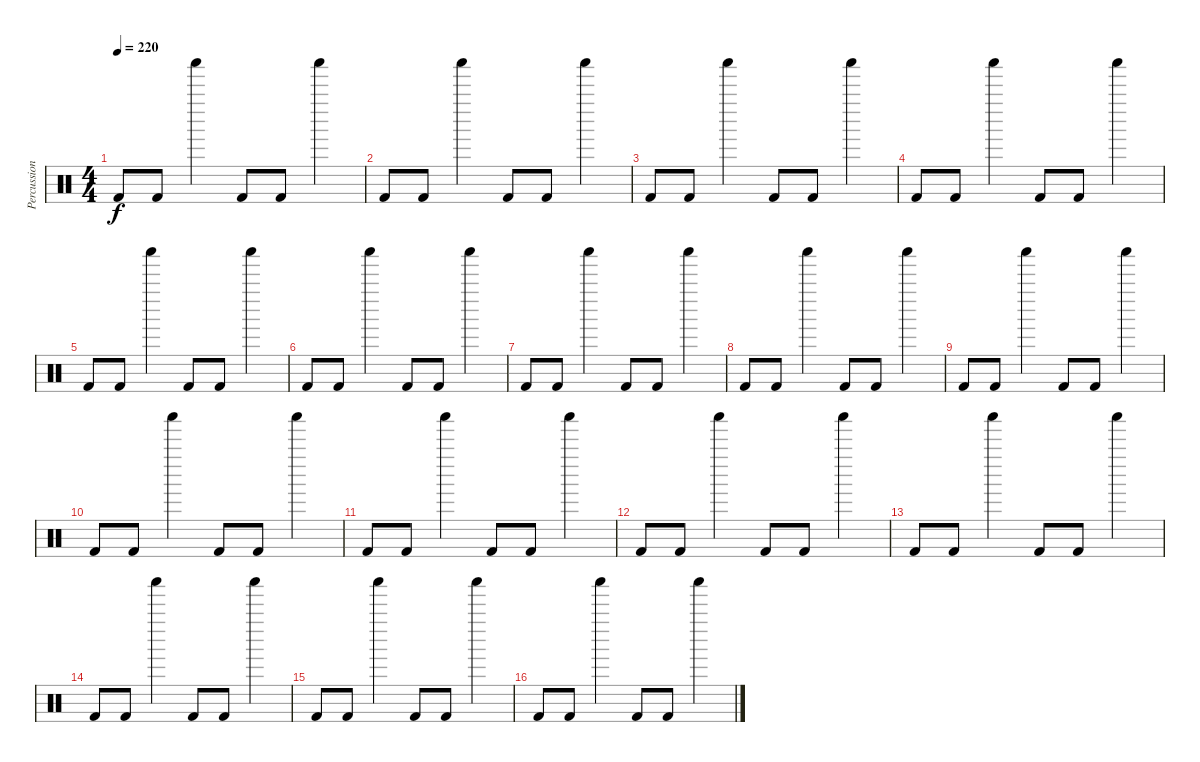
\track ("Percussions" "Percussion") {instrument percussion}
\staff {score}
\articulation defaults
\ts (4 4)
\tempo 220
\clef neutral
\ks c "Kick (hit) 2".8{dy f} "Kick (hit) 2".8 "Shaker (hit)".4 "Kick (hit) 2".8 "Kick (hit) 2".8 "Shaker (hit)".4
|
"Kick (hit) 2".8 "Kick (hit) 2".8 "Shaker (hit)".4 "Kick (hit) 2".8 "Kick (hit) 2".8 "Shaker (hit)".4 |
"Kick (hit) 2".8 "Kick (hit) 2".8 "Shaker (hit)".4 "Kick (hit) 2".8 "Kick (hit) 2".8 "Shaker (hit)".4 |
"Kick (hit) 2".8 "Kick (hit) 2".8 "Shaker (hit)".4 "Kick (hit) 2".8 "Kick (hit) 2".8 "Shaker (hit)".4 |
"Kick (hit) 2".8 "Kick (hit) 2".8 "Shaker (hit)".4 "Kick (hit) 2".8 "Kick (hit) 2".8 "Shaker (hit)".4 |
"Kick (hit) 2".8 "Kick (hit) 2".8 "Shaker (hit)".4 "Kick (hit) 2".8 "Kick (hit) 2".8 "Shaker (hit)".4 |
"Kick (hit) 2".8 "Kick (hit) 2".8 "Shaker (hit)".4 "Kick (hit) 2".8 "Kick (hit) 2".8 "Shaker (hit)".4 |
"Kick (hit) 2".8 "Kick (hit) 2".8 "Shaker (hit)".4 "Kick (hit) 2".8 "Kick (hit) 2".8 "Shaker (hit)".4 |
"Kick (hit) 2".8 "Kick (hit) 2".8 "Shaker (hit)".4 "Kick (hit) 2".8 "Kick (hit) 2".8 "Shaker (hit)".4 |
"Kick (hit) 2".8 "Kick (hit) 2".8 "Shaker (hit)".4 "Kick (hit) 2".8 "Kick (hit) 2".8 "Shaker (hit)".4 |
"Kick (hit) 2".8 "Kick (hit) 2".8 "Shaker (hit)".4 "Kick (hit) 2".8 "Kick (hit) 2".8 "Shaker (hit)".4 |
"Kick (hit) 2".8 "Kick (hit) 2".8 "Shaker (hit)".4 "Kick (hit) 2".8 "Kick (hit) 2".8 "Shaker (hit)".4 |
"Kick (hit) 2".8 "Kick (hit) 2".8 "Shaker (hit)".4 "Kick (hit) 2".8 "Kick (hit) 2".8 "Shaker (hit)".4 |
"Kick (hit) 2".8 "Kick (hit) 2".8 "Shaker (hit)".4 "Kick (hit) 2".8 "Kick (hit) 2".8 "Shaker (hit)".4 |
"Kick (hit) 2".8 "Kick (hit) 2".8 "Shaker (hit)".4 "Kick (hit) 2".8 "Kick (hit) 2".8 "Shaker (hit)".4 |
"Kick (hit) 2".8 "Kick (hit) 2".8 "Shaker (hit)".4 "Kick (hit) 2".8 "Kick (hit) 2".8 "Shaker (hit)".4
